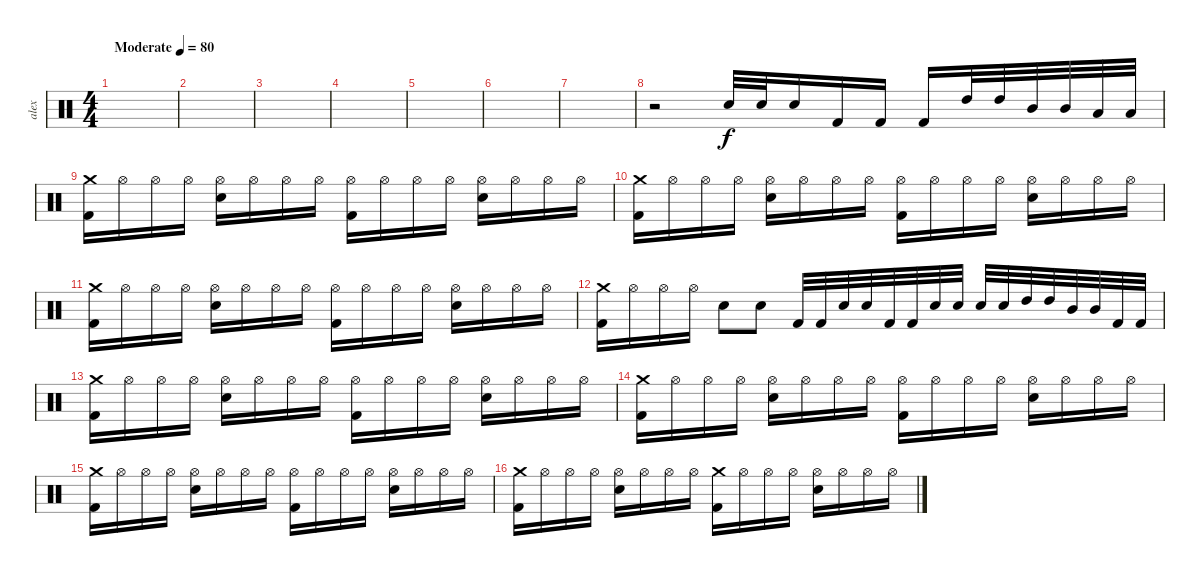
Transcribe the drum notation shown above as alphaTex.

\track ("alex" "alex") {instrument percussion}
\staff {score}
\articulation defaults
\ts (4 4)
\tempo (80 "Moderate")
\clef neutral
\ks c
|
|
|
|
|
|
|
r.2 "Snare (hit) 2".32 "Snare (hit) 2".32 "Snare (hit) 2".16 "Kick (hit) 2".16 "Kick (hit) 2".16 "Kick (hit) 2".16 "High Tom (hit)".32 "High Tom (hit)".32 "Mid Tom (hit)".32 "Mid Tom (hit)".32 "Low Tom (hit)".32 "Low Tom (hit)".32 |
("Kick (hit) 2" "Crash medium (hit)").16 "Hi-Hat (open)".16 "Hi-Hat (open)".16 "Hi-Hat (open)".16 ("Snare (hit) 2" "Hi-Hat (open)").16 "Hi-Hat (open)".16 "Hi-Hat (open)".16 "Hi-Hat (open)".16 ("Kick (hit) 2" "Hi-Hat (open)").16 "Hi-Hat (open)".16 "Hi-Hat (open)".16 "Hi-Hat (open)".16 ("Snare (hit) 2" "Hi-Hat (open)").16 "Hi-Hat (open)".16 "Hi-Hat (open)".16 "Hi-Hat (open)".16 |
("Kick (hit) 2" "Crash medium (hit)").16 "Hi-Hat (open)".16 "Hi-Hat (open)".16 "Hi-Hat (open)".16 ("Snare (hit) 2" "Hi-Hat (open)").16 "Hi-Hat (open)".16 "Hi-Hat (open)".16 "Hi-Hat (open)".16 ("Kick (hit) 2" "Hi-Hat (open)").16 "Hi-Hat (open)".16 "Hi-Hat (open)".16 "Hi-Hat (open)".16 ("Snare (hit) 2" "Hi-Hat (open)").16 "Hi-Hat (open)".16 "Hi-Hat (open)".16 "Hi-Hat (open)".16 |
("Kick (hit) 2" "Crash medium (hit)").16 "Hi-Hat (open)".16 "Hi-Hat (open)".16 "Hi-Hat (open)".16 ("Snare (hit) 2" "Hi-Hat (open)").16 "Hi-Hat (open)".16 "Hi-Hat (open)".16 "Hi-Hat (open)".16 ("Kick (hit) 2" "Hi-Hat (open)").16 "Hi-Hat (open)".16 "Hi-Hat (open)".16 "Hi-Hat (open)".16 ("Snare (hit) 2" "Hi-Hat (open)").16 "Hi-Hat (open)".16 "Hi-Hat (open)".16 "Hi-Hat (open)".16 |
("Kick (hit) 2" "Crash medium (hit)").16 "Hi-Hat (open)".16 "Hi-Hat (open)".16 "Hi-Hat (open)".16 "Snare (hit) 2".8 "Snare (hit) 2".8 "Kick (hit) 2".32 "Kick (hit) 2".32 "Snare (hit) 2".32 "Snare (hit) 2".32 "Kick (hit) 2".32 "Kick (hit) 2".32 "Snare (hit) 2".32 "Snare (hit) 2".32 "Snare (hit) 2".32 "Snare (hit) 2".32 "High Tom (hit)".32 "High Tom (hit)".32 "Mid Tom (hit)".32 "Mid Tom (hit)".32 "Kick (hit) 2".32 "Kick (hit) 2".32 |
("Kick (hit) 2" "Crash medium (hit)").16 "Hi-Hat (open)".16 "Hi-Hat (open)".16 "Hi-Hat (open)".16 ("Snare (hit) 2" "Hi-Hat (open)").16 "Hi-Hat (open)".16 "Hi-Hat (open)".16 "Hi-Hat (open)".16 ("Kick (hit) 2" "Hi-Hat (open)").16 "Hi-Hat (open)".16 "Hi-Hat (open)".16 "Hi-Hat (open)".16 ("Snare (hit) 2" "Hi-Hat (open)").16 "Hi-Hat (open)".16 "Hi-Hat (open)".16 "Hi-Hat (open)".16 |
("Kick (hit) 2" "Crash medium (hit)").16 "Hi-Hat (open)".16 "Hi-Hat (open)".16 "Hi-Hat (open)".16 ("Snare (hit) 2" "Hi-Hat (open)").16 "Hi-Hat (open)".16 "Hi-Hat (open)".16 "Hi-Hat (open)".16 ("Kick (hit) 2" "Hi-Hat (open)").16 "Hi-Hat (open)".16 "Hi-Hat (open)".16 "Hi-Hat (open)".16 ("Snare (hit) 2" "Hi-Hat (open)").16 "Hi-Hat (open)".16 "Hi-Hat (open)".16 "Hi-Hat (open)".16 |
("Kick (hit) 2" "Crash medium (hit)").16 "Hi-Hat (open)".16 "Hi-Hat (open)".16 "Hi-Hat (open)".16 ("Snare (hit) 2" "Hi-Hat (open)").16 "Hi-Hat (open)".16 "Hi-Hat (open)".16 "Hi-Hat (open)".16 ("Kick (hit) 2" "Hi-Hat (open)").16 "Hi-Hat (open)".16 "Hi-Hat (open)".16 "Hi-Hat (open)".16 ("Snare (hit) 2" "Hi-Hat (open)").16 "Hi-Hat (open)".16 "Hi-Hat (open)".16 "Hi-Hat (open)".16 |
("Kick (hit) 2" "Crash medium (hit)").16 "Hi-Hat (open)".16 "Hi-Hat (open)".16 "Hi-Hat (open)".16 ("Snare (hit) 2" "Hi-Hat (open)").16 "Hi-Hat (open)".16 "Hi-Hat (open)".16 "Hi-Hat (open)".16 ("Kick (hit) 2" "Crash medium (hit)").16 "Hi-Hat (open)".16 "Hi-Hat (open)".16 "Hi-Hat (open)".16 ("Snare (hit) 2" "Hi-Hat (open)").16 "Hi-Hat (open)".16 "Hi-Hat (open)".16 "Hi-Hat (open)".16
